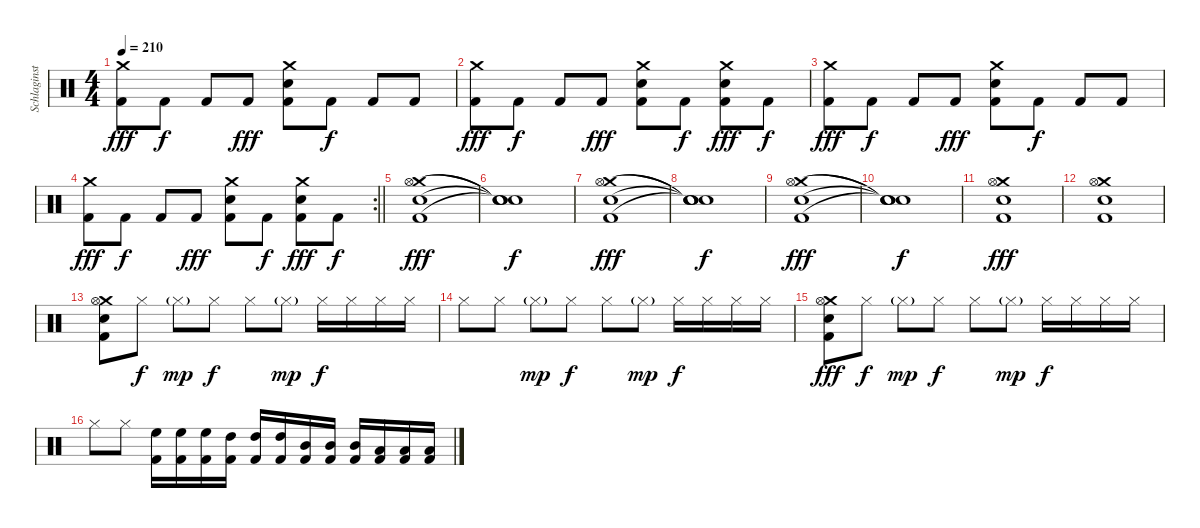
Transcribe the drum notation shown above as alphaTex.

\track ("Schlaginstrumente - Auswahl" "Schlaginst") {instrument percussion}
\staff {score}
\articulation defaults
\ts (4 4)
\tempo 210
\clef neutral
\ks c
("Crash medium (hit)" "Kick (hit) 2").8{dy fff} "Kick (hit) 2".8{dy f} "Kick (hit) 2".8 "Kick (hit) 2".8{dy fff} ("Crash medium (hit)" "Snare (hit) 2" "Kick (hit) 2").8 "Kick (hit) 2".8{dy f} "Kick (hit) 2".8 "Kick (hit) 2".8 |
("Crash medium (hit)" "Kick (hit) 2").8{dy fff} "Kick (hit) 2".8{dy f} "Kick (hit) 2".8 "Kick (hit) 2".8{dy fff} ("Crash medium (hit)" "Snare (hit) 2" "Kick (hit) 2").8 "Kick (hit) 2".8{dy f} ("Crash medium (hit)" "Snare (hit) 2" "Kick (hit) 2").8{dy fff} "Kick (hit) 2".8{dy f} |
("Crash medium (hit)" "Kick (hit) 2").8{dy fff} "Kick (hit) 2".8{dy f} "Kick (hit) 2".8 "Kick (hit) 2".8{dy fff} ("Crash medium (hit)" "Snare (hit) 2" "Kick (hit) 2").8 "Kick (hit) 2".8{dy f} "Kick (hit) 2".8 "Kick (hit) 2".8 |
\rc 2
\barLineRight lightlight
("Crash medium (hit)" "Kick (hit) 2").8{dy fff} "Kick (hit) 2".8{dy f} "Kick (hit) 2".8 "Kick (hit) 2".8{dy fff} ("Crash medium (hit)" "Snare (hit) 2" "Kick (hit) 2").8 "Kick (hit) 2".8{dy f} ("Crash medium (hit)" "Snare (hit) 2" "Kick (hit) 2").8{dy fff} "Kick (hit) 2".8{dy f} |
("Crash medium (hit)" "Kick (hit) 2" "Snare (hit) 2" "Hi-Hat (open)").1{dy fff} |
("Snare (hit)"{t} "Snare (hit)"{t} "Snare (hit)"{t} "Snare (hit)"{t}).1{dy f} |
("Crash medium (hit)" "Kick (hit) 2" "Snare (hit) 2" "Hi-Hat (open)").1{dy fff} |
("Snare (hit)"{t} "Snare (hit)"{t} "Snare (hit)"{t} "Snare (hit)"{t}).1{dy f} |
("Crash medium (hit)" "Kick (hit) 2" "Snare (hit) 2" "Hi-Hat (open)").1{dy fff} |
("Snare (hit)"{t} "Snare (hit)"{t} "Snare (hit)"{t} "Snare (hit)"{t}).1{dy f} |
("Crash medium (hit)" "Kick (hit) 2" "Snare (hit) 2" "Hi-Hat (open)").1{dy fff} |
("Crash medium (hit)" "Kick (hit) 2" "Snare (hit) 2" "Hi-Hat (open)").1 |
("Crash medium (hit)" "Kick (hit) 2" "Snare (hit) 2" "Hi-Hat (open)").8 "Hi-Hat (closed)".8{dy f} "Hi-Hat (closed)"{g}.8{dy mp} "Hi-Hat (closed)".8{dy f} "Hi-Hat (closed)".8 "Hi-Hat (closed)"{g}.8{dy mp} "Hi-Hat (closed)".16{dy f} "Hi-Hat (closed)".16 "Hi-Hat (closed)".16 "Hi-Hat (closed)".16 |
"Hi-Hat (closed)".8 "Hi-Hat (closed)".8 "Hi-Hat (closed)"{g}.8{dy mp} "Hi-Hat (closed)".8{dy f} "Hi-Hat (closed)".8 "Hi-Hat (closed)"{g}.8{dy mp} "Hi-Hat (closed)".16{dy f} "Hi-Hat (closed)".16 "Hi-Hat (closed)".16 "Hi-Hat (closed)".16 |
("Crash medium (hit)" "Kick (hit) 2" "Snare (hit) 2" "Hi-Hat (open)").8{dy fff} "Hi-Hat (closed)".8{dy f} "Hi-Hat (closed)"{g}.8{dy mp} "Hi-Hat (closed)".8{dy f} "Hi-Hat (closed)".8 "Hi-Hat (closed)"{g}.8{dy mp} "Hi-Hat (closed)".16{dy f} "Hi-Hat (closed)".16 "Hi-Hat (closed)".16 "Hi-Hat (closed)".16 |
"Hi-Hat (closed)".8 "Hi-Hat (closed)".8 ("High Floor Tom (hit)" "Kick (hit) 2").16 ("High Floor Tom (hit)" "Kick (hit) 2").16 ("High Floor Tom (hit)" "Kick (hit) 2").16 ("High Tom (hit)" "Kick (hit) 2").16 ("High Tom (hit)" "Kick (hit) 2").16 ("High Tom (hit)" "Kick (hit) 2").16 ("Mid Tom (hit)" "Kick (hit) 2").16 ("Mid Tom (hit)" "Kick (hit) 2").16 ("Mid Tom (hit)" "Kick (hit) 2").16 ("Low Tom (hit)" "Kick (hit) 2").16 ("Low Tom (hit)" "Kick (hit) 2").16 ("Low Tom (hit)" "Kick (hit) 2").16
